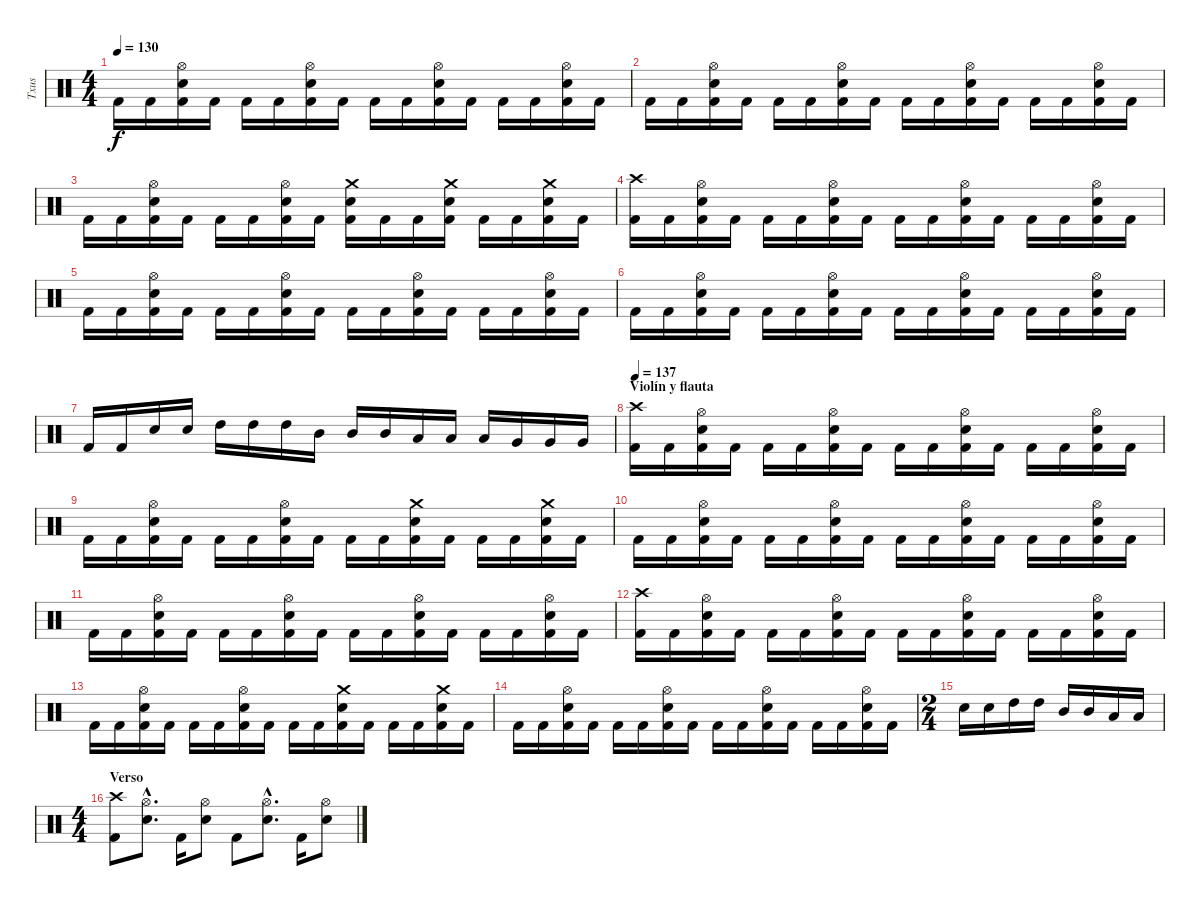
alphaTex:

\track ("Txus" "Txus") {instrument percussion}
\staff {score}
\articulation defaults
\ts (4 4)
\tempo 130
\clef neutral
\ks c "Kick (hit) 2".16{dy f} "Kick (hit) 2".16
("Kick (hit) 2" "Electric Snare (hit)" "Hi-Hat (open)").16 "Kick (hit) 2".16 "Kick (hit) 2".16 "Kick (hit) 2".16 ("Kick (hit) 2" "Electric Snare (hit)" "Hi-Hat (open)").16 "Kick (hit) 2".16 "Kick (hit) 2".16 "Kick (hit) 2".16 ("Kick (hit) 2" "Electric Snare (hit)" "Hi-Hat (open)").16 "Kick (hit) 2".16 "Kick (hit) 2".16 "Kick (hit) 2".16 ("Kick (hit) 2" "Electric Snare (hit)" "Hi-Hat (open)").16 "Kick (hit) 2".16 |
"Kick (hit) 2".16 "Kick (hit) 2".16 ("Kick (hit) 2" "Electric Snare (hit)" "Hi-Hat (open)").16 "Kick (hit) 2".16 "Kick (hit) 2".16 "Kick (hit) 2".16 ("Kick (hit) 2" "Electric Snare (hit)" "Hi-Hat (open)").16 "Kick (hit) 2".16 "Kick (hit) 2".16 "Kick (hit) 2".16 ("Kick (hit) 2" "Electric Snare (hit)" "Hi-Hat (open)").16 "Kick (hit) 2".16 "Kick (hit) 2".16 "Kick (hit) 2".16 ("Kick (hit) 2" "Electric Snare (hit)" "Hi-Hat (open)").16 "Kick (hit) 2".16 |
"Kick (hit) 2".16 "Kick (hit) 2".16 ("Kick (hit) 2" "Electric Snare (hit)" "Hi-Hat (open)").16 "Kick (hit) 2".16 "Kick (hit) 2".16 "Kick (hit) 2".16 ("Kick (hit) 2" "Electric Snare (hit)" "Hi-Hat (open)").16 "Kick (hit) 2".16 ("Kick (hit) 2" "Electric Snare (hit)" "Crash medium (hit)").16 "Kick (hit) 2".16 "Kick (hit) 2".16 ("Kick (hit) 2" "Electric Snare (hit)" "Crash medium (hit)").16 "Kick (hit) 2".16 "Kick (hit) 2".16 ("Kick (hit) 2" "Electric Snare (hit)" "Crash medium (hit)").16 "Kick (hit) 2".16 |
("Kick (hit) 2" "Crash high (hit)").16 "Kick (hit) 2".16 ("Kick (hit) 2" "Electric Snare (hit)" "Hi-Hat (open)").16 "Kick (hit) 2".16 "Kick (hit) 2".16 "Kick (hit) 2".16 ("Kick (hit) 2" "Electric Snare (hit)" "Hi-Hat (open)").16 "Kick (hit) 2".16 "Kick (hit) 2".16 "Kick (hit) 2".16 ("Kick (hit) 2" "Electric Snare (hit)" "Hi-Hat (open)").16 "Kick (hit) 2".16 "Kick (hit) 2".16 "Kick (hit) 2".16 ("Kick (hit) 2" "Electric Snare (hit)" "Hi-Hat (open)").16 "Kick (hit) 2".16 |
"Kick (hit) 2".16 "Kick (hit) 2".16 ("Kick (hit) 2" "Electric Snare (hit)" "Hi-Hat (open)").16 "Kick (hit) 2".16 "Kick (hit) 2".16 "Kick (hit) 2".16 ("Kick (hit) 2" "Electric Snare (hit)" "Hi-Hat (open)").16 "Kick (hit) 2".16 "Kick (hit) 2".16 "Kick (hit) 2".16 ("Kick (hit) 2" "Electric Snare (hit)" "Hi-Hat (open)").16 "Kick (hit) 2".16 "Kick (hit) 2".16 "Kick (hit) 2".16 ("Kick (hit) 2" "Electric Snare (hit)" "Hi-Hat (open)").16 "Kick (hit) 2".16 |
"Kick (hit) 2".16 "Kick (hit) 2".16 ("Kick (hit) 2" "Electric Snare (hit)" "Hi-Hat (open)").16 "Kick (hit) 2".16 "Kick (hit) 2".16 "Kick (hit) 2".16 ("Kick (hit) 2" "Electric Snare (hit)" "Hi-Hat (open)").16 "Kick (hit) 2".16 "Kick (hit) 2".16 "Kick (hit) 2".16 ("Kick (hit) 2" "Electric Snare (hit)" "Hi-Hat (open)").16 "Kick (hit) 2".16 "Kick (hit) 2".16 "Kick (hit) 2".16 ("Kick (hit) 2" "Electric Snare (hit)" "Hi-Hat (open)").16 "Kick (hit) 2".16 |
"Kick (hit) 2".16 "Kick (hit) 2".16 "Electric Snare (hit)".16 "Electric Snare (hit)".16 "High Tom (hit)".16 "High Tom (hit)".16 "High Tom (hit)".16 "Mid Tom (hit)".16 "Mid Tom (hit)".16 "Mid Tom (hit)".16 "Low Tom (hit)".16 "Low Tom (hit)".16 "Low Tom (hit)".16 "Very Low Tom (hit)".16 "Very Low Tom (hit)".16 "Very Low Tom (hit)".16 |
\section ("" "Violín y flauta")
\tempo 137
("Kick (hit) 2" "Crash high (hit)").16 "Kick (hit) 2".16 ("Kick (hit) 2" "Electric Snare (hit)" "Hi-Hat (open)").16 "Kick (hit) 2".16 "Kick (hit) 2".16 "Kick (hit) 2".16 ("Kick (hit) 2" "Electric Snare (hit)" "Hi-Hat (open)").16 "Kick (hit) 2".16 "Kick (hit) 2".16 "Kick (hit) 2".16 ("Kick (hit) 2" "Electric Snare (hit)" "Hi-Hat (open)").16 "Kick (hit) 2".16 "Kick (hit) 2".16 "Kick (hit) 2".16 ("Kick (hit) 2" "Electric Snare (hit)" "Hi-Hat (open)").16 "Kick (hit) 2".16 |
"Kick (hit) 2".16 "Kick (hit) 2".16 ("Kick (hit) 2" "Electric Snare (hit)" "Hi-Hat (open)").16 "Kick (hit) 2".16 "Kick (hit) 2".16 "Kick (hit) 2".16 ("Kick (hit) 2" "Electric Snare (hit)" "Hi-Hat (open)").16 "Kick (hit) 2".16 "Kick (hit) 2".16 "Kick (hit) 2".16 ("Kick (hit) 2" "Electric Snare (hit)" "Crash medium (hit)").16 "Kick (hit) 2".16 "Kick (hit) 2".16 "Kick (hit) 2".16 ("Kick (hit) 2" "Electric Snare (hit)" "Crash medium (hit)").16 "Kick (hit) 2".16 |
"Kick (hit) 2".16 "Kick (hit) 2".16 ("Kick (hit) 2" "Electric Snare (hit)" "Hi-Hat (open)").16 "Kick (hit) 2".16 "Kick (hit) 2".16 "Kick (hit) 2".16 ("Kick (hit) 2" "Electric Snare (hit)" "Hi-Hat (open)").16 "Kick (hit) 2".16 "Kick (hit) 2".16 "Kick (hit) 2".16 ("Kick (hit) 2" "Electric Snare (hit)" "Hi-Hat (open)").16 "Kick (hit) 2".16 "Kick (hit) 2".16 "Kick (hit) 2".16 ("Kick (hit) 2" "Electric Snare (hit)" "Hi-Hat (open)").16 "Kick (hit) 2".16 |
"Kick (hit) 2".16 "Kick (hit) 2".16 ("Kick (hit) 2" "Electric Snare (hit)" "Hi-Hat (open)").16 "Kick (hit) 2".16 "Kick (hit) 2".16 "Kick (hit) 2".16 ("Kick (hit) 2" "Electric Snare (hit)" "Hi-Hat (open)").16 "Kick (hit) 2".16 "Kick (hit) 2".16 "Kick (hit) 2".16 ("Kick (hit) 2" "Electric Snare (hit)" "Hi-Hat (open)").16 "Kick (hit) 2".16 "Kick (hit) 2".16 "Kick (hit) 2".16 ("Kick (hit) 2" "Electric Snare (hit)" "Hi-Hat (open)").16 "Kick (hit) 2".16 |
("Kick (hit) 2" "Crash high (hit)").16 "Kick (hit) 2".16 ("Kick (hit) 2" "Electric Snare (hit)" "Hi-Hat (open)").16 "Kick (hit) 2".16 "Kick (hit) 2".16 "Kick (hit) 2".16 ("Kick (hit) 2" "Electric Snare (hit)" "Hi-Hat (open)").16 "Kick (hit) 2".16 "Kick (hit) 2".16 "Kick (hit) 2".16 ("Kick (hit) 2" "Electric Snare (hit)" "Hi-Hat (open)").16 "Kick (hit) 2".16 "Kick (hit) 2".16 "Kick (hit) 2".16 ("Kick (hit) 2" "Electric Snare (hit)" "Hi-Hat (open)").16 "Kick (hit) 2".16 |
"Kick (hit) 2".16 "Kick (hit) 2".16 ("Kick (hit) 2" "Electric Snare (hit)" "Hi-Hat (open)").16 "Kick (hit) 2".16 "Kick (hit) 2".16 "Kick (hit) 2".16 ("Kick (hit) 2" "Electric Snare (hit)" "Hi-Hat (open)").16 "Kick (hit) 2".16 "Kick (hit) 2".16 "Kick (hit) 2".16 ("Kick (hit) 2" "Electric Snare (hit)" "Crash medium (hit)").16 "Kick (hit) 2".16 "Kick (hit) 2".16 "Kick (hit) 2".16 ("Kick (hit) 2" "Electric Snare (hit)" "Crash medium (hit)").16 "Kick (hit) 2".16 |
"Kick (hit) 2".16 "Kick (hit) 2".16 ("Kick (hit) 2" "Electric Snare (hit)" "Hi-Hat (open)").16 "Kick (hit) 2".16 "Kick (hit) 2".16 "Kick (hit) 2".16 ("Kick (hit) 2" "Electric Snare (hit)" "Hi-Hat (open)").16 "Kick (hit) 2".16 "Kick (hit) 2".16 "Kick (hit) 2".16 ("Kick (hit) 2" "Electric Snare (hit)" "Hi-Hat (open)").16 "Kick (hit) 2".16 "Kick (hit) 2".16 "Kick (hit) 2".16 ("Kick (hit) 2" "Electric Snare (hit)" "Hi-Hat (open)").16 "Kick (hit) 2".16 |
\ts (2 4)
"Electric Snare (hit)".16 "Electric Snare (hit)".16 "High Tom (hit)".16 "High Tom (hit)".16 "Mid Tom (hit)".16 "Mid Tom (hit)".16 "Low Tom (hit)".16 "Low Tom (hit)".16 |
\ts (4 4)
\section ("" "Verso")
("Kick (hit) 2" "Crash high (hit)").8 ("Electric Snare (hit)"{hac} "Hi-Hat (open)"{hac}).8{d} "Kick (hit) 2".16 ("Electric Snare (hit)" "Hi-Hat (open)").8 "Kick (hit) 2".8 ("Electric Snare (hit)"{hac} "Hi-Hat (open)"{hac}).8{d} "Kick (hit) 2".16 ("Electric Snare (hit)" "Hi-Hat (open)").8
